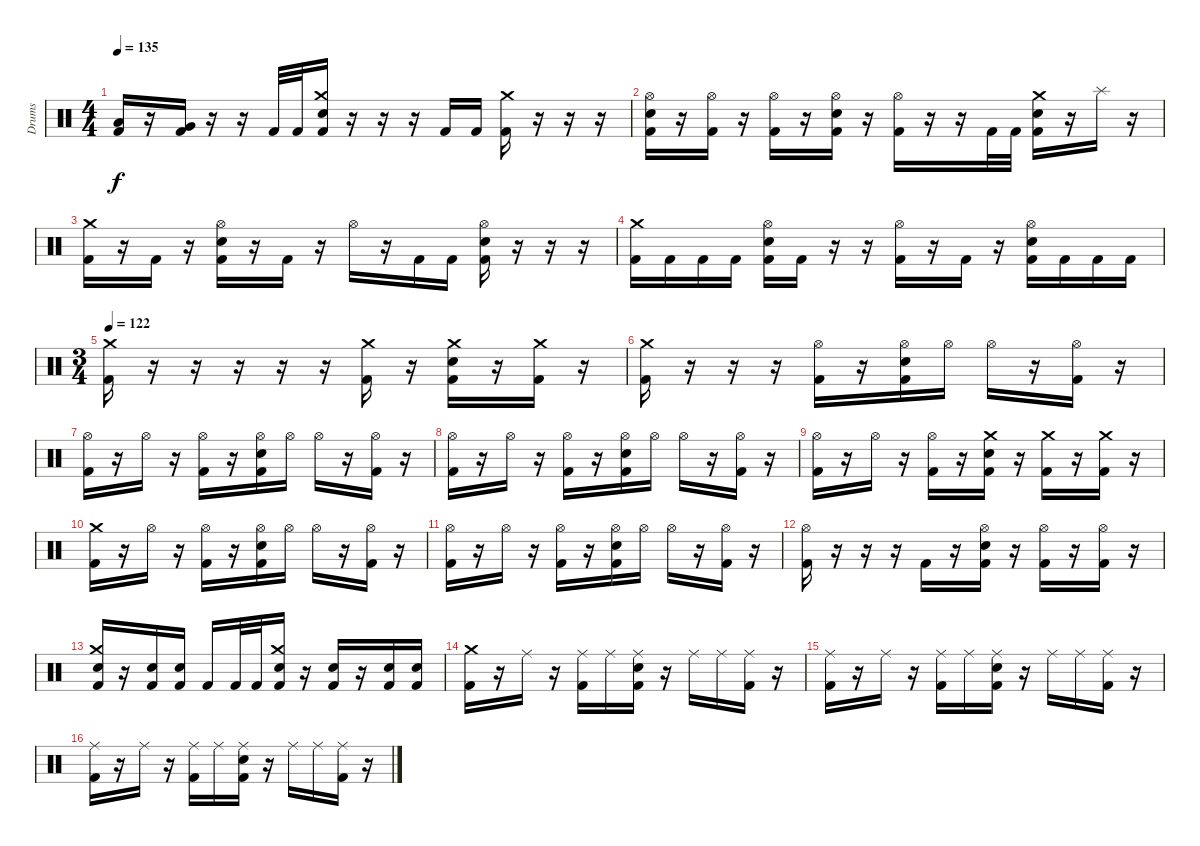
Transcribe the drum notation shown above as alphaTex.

\track ("Drums" "Drums") {instrument percussion}
\staff {score}
\articulation defaults
\ts (4 4)
\tempo 135
\clef neutral
\ks c
("Low Tom (hit)" "Kick (hit) 2").16{dy f} r.16 ("Very Low Tom (hit)" "Kick (hit) 2").16 r.16 r.16 "Kick (hit) 2".32 "Kick (hit) 2".32 ("Crash medium (hit)" "Electric Snare (hit)" "Kick (hit) 2").16 r.16 r.16 r.16 "Kick (hit) 2".16 "Kick (hit) 2".16 ("Crash medium (hit)" "Kick (hit) 2").16 r.16 r.16 r.16 |
("Hi-Hat (open)" "Electric Snare (hit)" "Kick (hit) 2").16 r.16 ("Hi-Hat (open)" "Kick (hit) 2").16 r.16 ("Hi-Hat (open)" "Kick (hit) 2").16 r.16 ("Hi-Hat (open)" "Electric Snare (hit)" "Kick (hit) 2").16 r.16 ("Hi-Hat (open)" "Kick (hit) 2").16 r.16 r.16 "Kick (hit) 2".32 "Kick (hit) 2".32 ("Crash medium (hit)" "Electric Snare (hit)" "Kick (hit) 2").16 r.16 "Splash (hit)".16 r.16 |
("Crash medium (hit)" "Kick (hit) 2").16 r.16 "Kick (hit) 2".16 r.16 ("Hi-Hat (open)" "Electric Snare (hit)" "Kick (hit) 2").16 r.16 "Kick (hit) 2".16 r.16 "Hi-Hat (open)".16 r.16 "Kick (hit) 2".16 "Kick (hit) 2".16 ("Hi-Hat (open)" "Electric Snare (hit)" "Kick (hit) 2").16 r.16 r.16 r.16 |
("Crash medium (hit)" "Kick (hit) 2").16 "Kick (hit) 2".16 "Kick (hit) 2".16 "Kick (hit) 2".16 ("Hi-Hat (open)" "Electric Snare (hit)" "Kick (hit) 2").16 "Kick (hit) 2".16 r.16 r.16 ("Hi-Hat (open)" "Kick (hit) 2").16 r.16 "Kick (hit) 2".16 r.16 ("Hi-Hat (open)" "Electric Snare (hit)" "Kick (hit) 2").16 "Kick (hit) 2".16 "Kick (hit) 2".16 "Kick (hit) 2".16 |
\ts (3 4)
\section ("" "")
\tempo 122
("Crash medium (hit)" "Kick (hit) 2").16 r.16 r.16{volume 0} r.16 r.16 r.16 ("Crash medium (hit)" "Kick (hit) 2").16{volume 16} r.16 ("Crash medium (hit)" "Electric Snare (hit)" "Kick (hit) 2").16 r.16 ("Crash medium (hit)" "Kick (hit) 2").16 r.16 |
("Crash medium (hit)" "Kick (hit) 2").16 r.16 r.16 r.16 ("Hi-Hat (open)" "Kick (hit) 2").16 r.16 ("Hi-Hat (open)" "Electric Snare (hit)" "Kick (hit) 2").16 "Hi-Hat (open)".16 "Hi-Hat (open)".16 r.16 ("Hi-Hat (open)" "Kick (hit) 2").16 r.16 |
("Hi-Hat (open)" "Kick (hit) 2").16 r.16 "Hi-Hat (open)".16 r.16 ("Hi-Hat (open)" "Kick (hit) 2").16 r.16 ("Hi-Hat (open)" "Electric Snare (hit)" "Kick (hit) 2").16 "Hi-Hat (open)".16 "Hi-Hat (open)".16 r.16 ("Hi-Hat (open)" "Kick (hit) 2").16 r.16 |
("Hi-Hat (open)" "Kick (hit) 2").16 r.16 "Hi-Hat (open)".16 r.16 ("Hi-Hat (open)" "Kick (hit) 2").16 r.16 ("Hi-Hat (open)" "Electric Snare (hit)" "Kick (hit) 2").16 "Hi-Hat (open)".16 "Hi-Hat (open)".16 r.16 ("Hi-Hat (open)" "Kick (hit) 2").16 r.16 |
("Hi-Hat (open)" "Kick (hit) 2").16 r.16 "Hi-Hat (open)".16 r.16 ("Hi-Hat (open)" "Kick (hit) 2").16 r.16 ("Crash medium (hit)" "Electric Snare (hit)" "Kick (hit) 2").16 r.16 ("Crash medium (hit)" "Kick (hit) 2").16 r.16 ("Crash medium (hit)" "Kick (hit) 2").16 r.16 |
("Crash medium (hit)" "Kick (hit) 2").16 r.16 "Hi-Hat (open)".16 r.16 ("Hi-Hat (open)" "Kick (hit) 2").16 r.16 ("Hi-Hat (open)" "Electric Snare (hit)" "Kick (hit) 2").16 "Hi-Hat (open)".16 "Hi-Hat (open)".16 r.16 ("Hi-Hat (open)" "Kick (hit) 2").16 r.16 |
("Hi-Hat (open)" "Kick (hit) 2").16 r.16 "Hi-Hat (open)".16 r.16 ("Hi-Hat (open)" "Kick (hit) 2").16 r.16 ("Hi-Hat (open)" "Electric Snare (hit)" "Kick (hit) 2").16 "Hi-Hat (open)".16 "Hi-Hat (open)".16 r.16 ("Hi-Hat (open)" "Kick (hit) 2").16 r.16 |
("Hi-Hat (open)" "Kick (hit) 2").16 r.16 r.16 r.16 "Kick (hit) 2".16 r.16 ("Hi-Hat (open)" "Electric Snare (hit)" "Kick (hit) 2").16 r.16 ("Hi-Hat (open)" "Kick (hit) 2").16 r.16 ("Hi-Hat (open)" "Kick (hit) 2").16 r.16 |
("Crash medium (hit)" "Electric Snare (hit)" "Kick (hit) 2").16 r.16 ("Electric Snare (hit)" "Kick (hit) 2").16 ("Electric Snare (hit)" "Kick (hit) 2").16 "Kick (hit) 2".16 "Kick (hit) 2".32 "Kick (hit) 2".32 ("Crash medium (hit)" "Electric Snare (hit)" "Kick (hit) 2").16 r.16 ("Electric Snare (hit)" "Kick (hit) 2").16 r.16 ("Electric Snare (hit)" "Kick (hit) 2").16 ("Electric Snare (hit)" "Kick (hit) 2").16 |
("Crash medium (hit)" "Kick (hit) 2").16 r.16 "Ride (middle)".16 r.16 ("Ride (middle)" "Kick (hit) 2").16 "Ride (middle)".16 ("Ride (middle)" "Electric Snare (hit)" "Kick (hit) 2").16 r.16 "Ride (middle)".16 "Ride (middle)".16 ("Ride (middle)" "Kick (hit) 2").16 r.16 |
("Ride (middle)" "Kick (hit) 2").16 r.16 "Ride (middle)".16 r.16 ("Ride (middle)" "Kick (hit) 2").16 "Ride (middle)".16 ("Ride (middle)" "Electric Snare (hit)" "Kick (hit) 2").16 r.16 "Ride (middle)".16 "Ride (middle)".16 ("Ride (middle)" "Kick (hit) 2").16 r.16 |
("Ride (middle)" "Kick (hit) 2").16 r.16 "Ride (middle)".16 r.16 ("Ride (middle)" "Kick (hit) 2").16 "Ride (middle)".16 ("Ride (middle)" "Electric Snare (hit)" "Kick (hit) 2").16 r.16 "Ride (middle)".16 "Ride (middle)".16 ("Ride (middle)" "Kick (hit) 2").16 r.16
